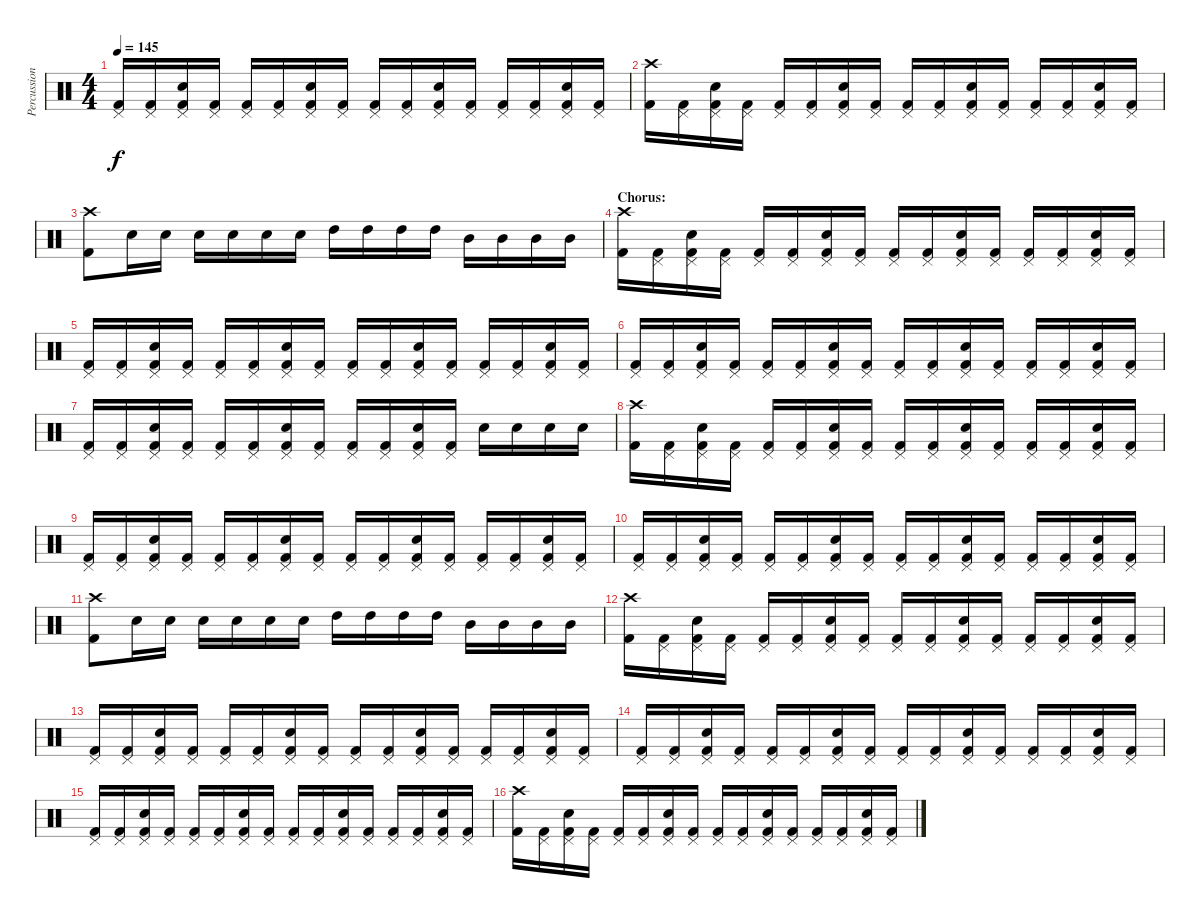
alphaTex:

\track ("Percussion" "Percussion") {instrument percussion}
\staff {score}
\articulation defaults
\ts (4 4)
\tempo 145
\clef neutral
\ks c
("Pedal Hi-Hat (hit)" "Kick (hit) 2").16{dy f} ("Pedal Hi-Hat (hit)" "Kick (hit) 2").16 ("Pedal Hi-Hat (hit)" "Snare (hit) 2" "Kick (hit) 2").16 ("Pedal Hi-Hat (hit)" "Kick (hit) 2").16 ("Pedal Hi-Hat (hit)" "Kick (hit) 2").16 ("Pedal Hi-Hat (hit)" "Kick (hit) 2").16 ("Pedal Hi-Hat (hit)" "Snare (hit) 2" "Kick (hit) 2").16 ("Pedal Hi-Hat (hit)" "Kick (hit) 2").16 ("Pedal Hi-Hat (hit)" "Kick (hit) 2").16 ("Pedal Hi-Hat (hit)" "Kick (hit) 2").16 ("Pedal Hi-Hat (hit)" "Snare (hit) 2" "Kick (hit) 2").16 ("Pedal Hi-Hat (hit)" "Kick (hit) 2").16 ("Pedal Hi-Hat (hit)" "Kick (hit) 2").16 ("Pedal Hi-Hat (hit)" "Kick (hit) 2").16 ("Pedal Hi-Hat (hit)" "Snare (hit) 2" "Kick (hit) 2").16 ("Pedal Hi-Hat (hit)" "Kick (hit) 2").16 |
("Crash high (hit)" "Kick (hit) 2").16 ("Pedal Hi-Hat (hit)" "Kick (hit) 2").16 ("Pedal Hi-Hat (hit)" "Snare (hit) 2" "Kick (hit) 2").16 ("Pedal Hi-Hat (hit)" "Kick (hit) 2").16 ("Pedal Hi-Hat (hit)" "Kick (hit) 2").16 ("Pedal Hi-Hat (hit)" "Kick (hit) 2").16 ("Pedal Hi-Hat (hit)" "Snare (hit) 2" "Kick (hit) 2").16 ("Pedal Hi-Hat (hit)" "Kick (hit) 2").16 ("Pedal Hi-Hat (hit)" "Kick (hit) 2").16 ("Pedal Hi-Hat (hit)" "Kick (hit) 2").16 ("Pedal Hi-Hat (hit)" "Snare (hit) 2" "Kick (hit) 2").16 ("Pedal Hi-Hat (hit)" "Kick (hit) 2").16 ("Pedal Hi-Hat (hit)" "Kick (hit) 2").16 ("Pedal Hi-Hat (hit)" "Kick (hit) 2").16 ("Pedal Hi-Hat (hit)" "Snare (hit) 2" "Kick (hit) 2").16 ("Pedal Hi-Hat (hit)" "Kick (hit) 2").16 |
("Crash high (hit)" "Kick (hit) 2").8 "Snare (hit) 2".16 "Snare (hit) 2".16 "Snare (hit) 2".16 "Snare (hit) 2".16 "Snare (hit) 2".16 "Snare (hit) 2".16 "High Tom (hit)".16 "High Tom (hit)".16 "High Tom (hit)".16 "High Tom (hit)".16 "Mid Tom (hit)".16 "Mid Tom (hit)".16 "Mid Tom (hit)".16 "Mid Tom (hit)".16 |
\section ("" "Chorus:")
("Crash high (hit)" "Kick (hit) 2").16 ("Pedal Hi-Hat (hit)" "Kick (hit) 2").16 ("Pedal Hi-Hat (hit)" "Snare (hit) 2" "Kick (hit) 2").16 ("Pedal Hi-Hat (hit)" "Kick (hit) 2").16 ("Pedal Hi-Hat (hit)" "Kick (hit) 2").16 ("Pedal Hi-Hat (hit)" "Kick (hit) 2").16 ("Pedal Hi-Hat (hit)" "Snare (hit) 2" "Kick (hit) 2").16 ("Pedal Hi-Hat (hit)" "Kick (hit) 2").16 ("Pedal Hi-Hat (hit)" "Kick (hit) 2").16 ("Pedal Hi-Hat (hit)" "Kick (hit) 2").16 ("Pedal Hi-Hat (hit)" "Snare (hit) 2" "Kick (hit) 2").16 ("Pedal Hi-Hat (hit)" "Kick (hit) 2").16 ("Pedal Hi-Hat (hit)" "Kick (hit) 2").16 ("Pedal Hi-Hat (hit)" "Kick (hit) 2").16 ("Pedal Hi-Hat (hit)" "Snare (hit) 2" "Kick (hit) 2").16 ("Pedal Hi-Hat (hit)" "Kick (hit) 2").16 |
("Pedal Hi-Hat (hit)" "Kick (hit) 2").16 ("Pedal Hi-Hat (hit)" "Kick (hit) 2").16 ("Pedal Hi-Hat (hit)" "Snare (hit) 2" "Kick (hit) 2").16 ("Pedal Hi-Hat (hit)" "Kick (hit) 2").16 ("Pedal Hi-Hat (hit)" "Kick (hit) 2").16 ("Pedal Hi-Hat (hit)" "Kick (hit) 2").16 ("Pedal Hi-Hat (hit)" "Snare (hit) 2" "Kick (hit) 2").16 ("Pedal Hi-Hat (hit)" "Kick (hit) 2").16 ("Pedal Hi-Hat (hit)" "Kick (hit) 2").16 ("Pedal Hi-Hat (hit)" "Kick (hit) 2").16 ("Pedal Hi-Hat (hit)" "Snare (hit) 2" "Kick (hit) 2").16 ("Pedal Hi-Hat (hit)" "Kick (hit) 2").16 ("Pedal Hi-Hat (hit)" "Kick (hit) 2").16 ("Pedal Hi-Hat (hit)" "Kick (hit) 2").16 ("Pedal Hi-Hat (hit)" "Snare (hit) 2" "Kick (hit) 2").16 ("Pedal Hi-Hat (hit)" "Kick (hit) 2").16 |
("Pedal Hi-Hat (hit)" "Kick (hit) 2").16 ("Pedal Hi-Hat (hit)" "Kick (hit) 2").16 ("Pedal Hi-Hat (hit)" "Snare (hit) 2" "Kick (hit) 2").16 ("Pedal Hi-Hat (hit)" "Kick (hit) 2").16 ("Pedal Hi-Hat (hit)" "Kick (hit) 2").16 ("Pedal Hi-Hat (hit)" "Kick (hit) 2").16 ("Pedal Hi-Hat (hit)" "Snare (hit) 2" "Kick (hit) 2").16 ("Pedal Hi-Hat (hit)" "Kick (hit) 2").16 ("Pedal Hi-Hat (hit)" "Kick (hit) 2").16 ("Pedal Hi-Hat (hit)" "Kick (hit) 2").16 ("Pedal Hi-Hat (hit)" "Snare (hit) 2" "Kick (hit) 2").16 ("Pedal Hi-Hat (hit)" "Kick (hit) 2").16 ("Pedal Hi-Hat (hit)" "Kick (hit) 2").16 ("Pedal Hi-Hat (hit)" "Kick (hit) 2").16 ("Pedal Hi-Hat (hit)" "Snare (hit) 2" "Kick (hit) 2").16 ("Pedal Hi-Hat (hit)" "Kick (hit) 2").16 |
("Pedal Hi-Hat (hit)" "Kick (hit) 2").16 ("Pedal Hi-Hat (hit)" "Kick (hit) 2").16 ("Pedal Hi-Hat (hit)" "Snare (hit) 2" "Kick (hit) 2").16 ("Pedal Hi-Hat (hit)" "Kick (hit) 2").16 ("Pedal Hi-Hat (hit)" "Kick (hit) 2").16 ("Pedal Hi-Hat (hit)" "Kick (hit) 2").16 ("Pedal Hi-Hat (hit)" "Snare (hit) 2" "Kick (hit) 2").16 ("Pedal Hi-Hat (hit)" "Kick (hit) 2").16 ("Pedal Hi-Hat (hit)" "Kick (hit) 2").16 ("Pedal Hi-Hat (hit)" "Kick (hit) 2").16 ("Pedal Hi-Hat (hit)" "Snare (hit) 2" "Kick (hit) 2").16 ("Pedal Hi-Hat (hit)" "Kick (hit) 2").16 "Snare (hit) 2".16 "Snare (hit) 2".16 "Snare (hit) 2".16 "Snare (hit) 2".16 |
("Crash high (hit)" "Kick (hit) 2").16 ("Pedal Hi-Hat (hit)" "Kick (hit) 2").16 ("Pedal Hi-Hat (hit)" "Snare (hit) 2" "Kick (hit) 2").16 ("Pedal Hi-Hat (hit)" "Kick (hit) 2").16 ("Pedal Hi-Hat (hit)" "Kick (hit) 2").16 ("Pedal Hi-Hat (hit)" "Kick (hit) 2").16 ("Pedal Hi-Hat (hit)" "Snare (hit) 2" "Kick (hit) 2").16 ("Pedal Hi-Hat (hit)" "Kick (hit) 2").16 ("Pedal Hi-Hat (hit)" "Kick (hit) 2").16 ("Pedal Hi-Hat (hit)" "Kick (hit) 2").16 ("Pedal Hi-Hat (hit)" "Snare (hit) 2" "Kick (hit) 2").16 ("Pedal Hi-Hat (hit)" "Kick (hit) 2").16 ("Pedal Hi-Hat (hit)" "Kick (hit) 2").16 ("Pedal Hi-Hat (hit)" "Kick (hit) 2").16 ("Pedal Hi-Hat (hit)" "Snare (hit) 2" "Kick (hit) 2").16 ("Pedal Hi-Hat (hit)" "Kick (hit) 2").16 |
("Pedal Hi-Hat (hit)" "Kick (hit) 2").16 ("Pedal Hi-Hat (hit)" "Kick (hit) 2").16 ("Pedal Hi-Hat (hit)" "Snare (hit) 2" "Kick (hit) 2").16 ("Pedal Hi-Hat (hit)" "Kick (hit) 2").16 ("Pedal Hi-Hat (hit)" "Kick (hit) 2").16 ("Pedal Hi-Hat (hit)" "Kick (hit) 2").16 ("Pedal Hi-Hat (hit)" "Snare (hit) 2" "Kick (hit) 2").16 ("Pedal Hi-Hat (hit)" "Kick (hit) 2").16 ("Pedal Hi-Hat (hit)" "Kick (hit) 2").16 ("Pedal Hi-Hat (hit)" "Kick (hit) 2").16 ("Pedal Hi-Hat (hit)" "Snare (hit) 2" "Kick (hit) 2").16 ("Pedal Hi-Hat (hit)" "Kick (hit) 2").16 ("Pedal Hi-Hat (hit)" "Kick (hit) 2").16 ("Pedal Hi-Hat (hit)" "Kick (hit) 2").16 ("Pedal Hi-Hat (hit)" "Snare (hit) 2" "Kick (hit) 2").16 ("Pedal Hi-Hat (hit)" "Kick (hit) 2").16 |
("Pedal Hi-Hat (hit)" "Kick (hit) 2").16 ("Pedal Hi-Hat (hit)" "Kick (hit) 2").16 ("Pedal Hi-Hat (hit)" "Snare (hit) 2" "Kick (hit) 2").16 ("Pedal Hi-Hat (hit)" "Kick (hit) 2").16 ("Pedal Hi-Hat (hit)" "Kick (hit) 2").16 ("Pedal Hi-Hat (hit)" "Kick (hit) 2").16 ("Pedal Hi-Hat (hit)" "Snare (hit) 2" "Kick (hit) 2").16 ("Pedal Hi-Hat (hit)" "Kick (hit) 2").16 ("Pedal Hi-Hat (hit)" "Kick (hit) 2").16 ("Pedal Hi-Hat (hit)" "Kick (hit) 2").16 ("Pedal Hi-Hat (hit)" "Snare (hit) 2" "Kick (hit) 2").16 ("Pedal Hi-Hat (hit)" "Kick (hit) 2").16 ("Pedal Hi-Hat (hit)" "Kick (hit) 2").16 ("Pedal Hi-Hat (hit)" "Kick (hit) 2").16 ("Pedal Hi-Hat (hit)" "Snare (hit) 2" "Kick (hit) 2").16 ("Pedal Hi-Hat (hit)" "Kick (hit) 2").16 |
("Crash high (hit)" "Kick (hit) 2").8 "Snare (hit) 2".16 "Snare (hit) 2".16 "Snare (hit) 2".16 "Snare (hit) 2".16 "Snare (hit) 2".16 "Snare (hit) 2".16 "High Tom (hit)".16 "High Tom (hit)".16 "High Tom (hit)".16 "High Tom (hit)".16 "Mid Tom (hit)".16 "Mid Tom (hit)".16 "Mid Tom (hit)".16 "Mid Tom (hit)".16 |
("Crash high (hit)" "Kick (hit) 2").16 ("Pedal Hi-Hat (hit)" "Kick (hit) 2").16 ("Pedal Hi-Hat (hit)" "Snare (hit) 2" "Kick (hit) 2").16 ("Pedal Hi-Hat (hit)" "Kick (hit) 2").16 ("Pedal Hi-Hat (hit)" "Kick (hit) 2").16 ("Pedal Hi-Hat (hit)" "Kick (hit) 2").16 ("Pedal Hi-Hat (hit)" "Snare (hit) 2" "Kick (hit) 2").16 ("Pedal Hi-Hat (hit)" "Kick (hit) 2").16 ("Pedal Hi-Hat (hit)" "Kick (hit) 2").16 ("Pedal Hi-Hat (hit)" "Kick (hit) 2").16 ("Pedal Hi-Hat (hit)" "Snare (hit) 2" "Kick (hit) 2").16 ("Pedal Hi-Hat (hit)" "Kick (hit) 2").16 ("Pedal Hi-Hat (hit)" "Kick (hit) 2").16 ("Pedal Hi-Hat (hit)" "Kick (hit) 2").16 ("Pedal Hi-Hat (hit)" "Snare (hit) 2" "Kick (hit) 2").16 ("Pedal Hi-Hat (hit)" "Kick (hit) 2").16 |
("Pedal Hi-Hat (hit)" "Kick (hit) 2").16 ("Pedal Hi-Hat (hit)" "Kick (hit) 2").16 ("Pedal Hi-Hat (hit)" "Snare (hit) 2" "Kick (hit) 2").16 ("Pedal Hi-Hat (hit)" "Kick (hit) 2").16 ("Pedal Hi-Hat (hit)" "Kick (hit) 2").16 ("Pedal Hi-Hat (hit)" "Kick (hit) 2").16 ("Pedal Hi-Hat (hit)" "Snare (hit) 2" "Kick (hit) 2").16 ("Pedal Hi-Hat (hit)" "Kick (hit) 2").16 ("Pedal Hi-Hat (hit)" "Kick (hit) 2").16 ("Pedal Hi-Hat (hit)" "Kick (hit) 2").16 ("Pedal Hi-Hat (hit)" "Snare (hit) 2" "Kick (hit) 2").16 ("Pedal Hi-Hat (hit)" "Kick (hit) 2").16 ("Pedal Hi-Hat (hit)" "Kick (hit) 2").16 ("Pedal Hi-Hat (hit)" "Kick (hit) 2").16 ("Pedal Hi-Hat (hit)" "Snare (hit) 2" "Kick (hit) 2").16 ("Pedal Hi-Hat (hit)" "Kick (hit) 2").16 |
("Pedal Hi-Hat (hit)" "Kick (hit) 2").16 ("Pedal Hi-Hat (hit)" "Kick (hit) 2").16 ("Pedal Hi-Hat (hit)" "Snare (hit) 2" "Kick (hit) 2").16 ("Pedal Hi-Hat (hit)" "Kick (hit) 2").16 ("Pedal Hi-Hat (hit)" "Kick (hit) 2").16 ("Pedal Hi-Hat (hit)" "Kick (hit) 2").16 ("Pedal Hi-Hat (hit)" "Snare (hit) 2" "Kick (hit) 2").16 ("Pedal Hi-Hat (hit)" "Kick (hit) 2").16 ("Pedal Hi-Hat (hit)" "Kick (hit) 2").16 ("Pedal Hi-Hat (hit)" "Kick (hit) 2").16 ("Pedal Hi-Hat (hit)" "Snare (hit) 2" "Kick (hit) 2").16 ("Pedal Hi-Hat (hit)" "Kick (hit) 2").16 ("Pedal Hi-Hat (hit)" "Kick (hit) 2").16 ("Pedal Hi-Hat (hit)" "Kick (hit) 2").16 ("Pedal Hi-Hat (hit)" "Snare (hit) 2" "Kick (hit) 2").16 ("Pedal Hi-Hat (hit)" "Kick (hit) 2").16 |
("Pedal Hi-Hat (hit)" "Kick (hit) 2").16 ("Pedal Hi-Hat (hit)" "Kick (hit) 2").16 ("Pedal Hi-Hat (hit)" "Snare (hit) 2" "Kick (hit) 2").16 ("Pedal Hi-Hat (hit)" "Kick (hit) 2").16 ("Pedal Hi-Hat (hit)" "Kick (hit) 2").16 ("Pedal Hi-Hat (hit)" "Kick (hit) 2").16 ("Pedal Hi-Hat (hit)" "Snare (hit) 2" "Kick (hit) 2").16 ("Pedal Hi-Hat (hit)" "Kick (hit) 2").16 ("Pedal Hi-Hat (hit)" "Kick (hit) 2").16 ("Pedal Hi-Hat (hit)" "Kick (hit) 2").16 ("Pedal Hi-Hat (hit)" "Snare (hit) 2" "Kick (hit) 2").16 ("Pedal Hi-Hat (hit)" "Kick (hit) 2").16 ("Pedal Hi-Hat (hit)" "Kick (hit) 2").16 ("Pedal Hi-Hat (hit)" "Kick (hit) 2").16 ("Pedal Hi-Hat (hit)" "Snare (hit) 2" "Kick (hit) 2").16 ("Pedal Hi-Hat (hit)" "Kick (hit) 2").16 |
("Crash high (hit)" "Kick (hit) 2").16 ("Pedal Hi-Hat (hit)" "Kick (hit) 2").16 ("Pedal Hi-Hat (hit)" "Snare (hit) 2" "Kick (hit) 2").16 ("Pedal Hi-Hat (hit)" "Kick (hit) 2").16 ("Pedal Hi-Hat (hit)" "Kick (hit) 2").16 ("Pedal Hi-Hat (hit)" "Kick (hit) 2").16 ("Pedal Hi-Hat (hit)" "Snare (hit) 2" "Kick (hit) 2").16 ("Pedal Hi-Hat (hit)" "Kick (hit) 2").16 ("Pedal Hi-Hat (hit)" "Kick (hit) 2").16 ("Pedal Hi-Hat (hit)" "Kick (hit) 2").16 ("Pedal Hi-Hat (hit)" "Snare (hit) 2" "Kick (hit) 2").16 ("Pedal Hi-Hat (hit)" "Kick (hit) 2").16 ("Pedal Hi-Hat (hit)" "Kick (hit) 2").16 ("Pedal Hi-Hat (hit)" "Kick (hit) 2").16 ("Pedal Hi-Hat (hit)" "Snare (hit) 2" "Kick (hit) 2").16 ("Pedal Hi-Hat (hit)" "Kick (hit) 2").16
